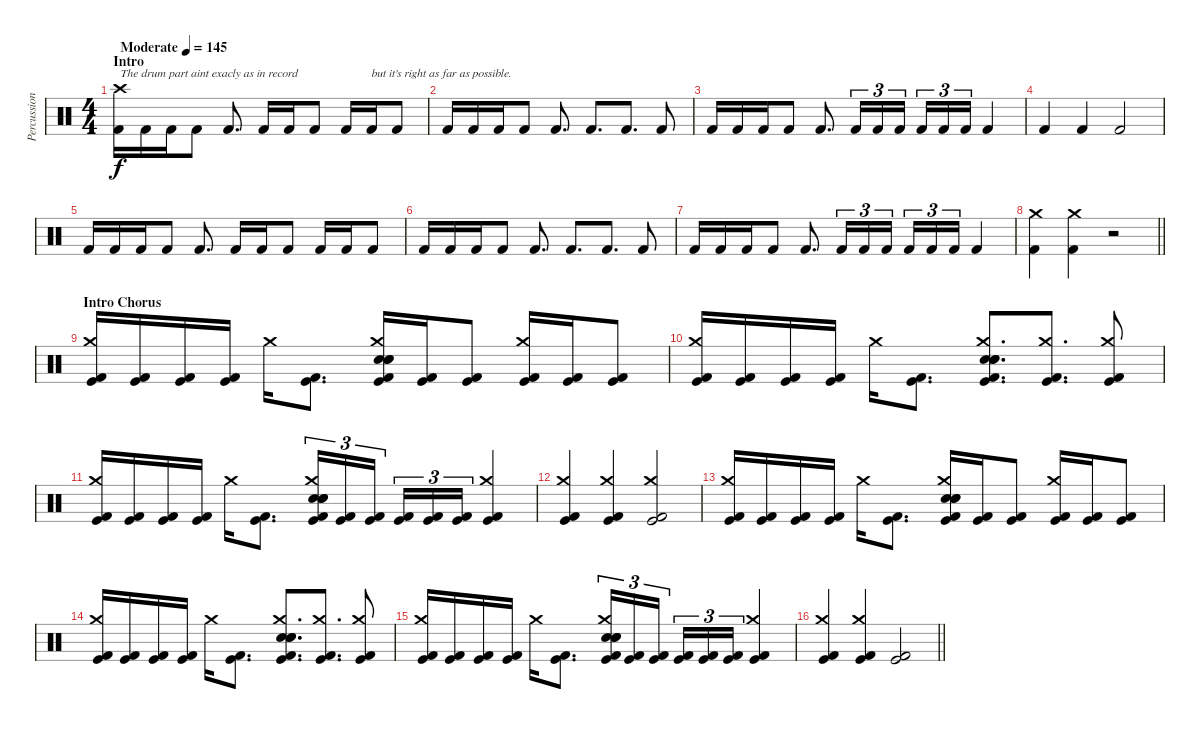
\track ("Percussion" "Percussion") {instrument percussion}
\staff {score}
\articulation defaults
\ts (4 4)
\section ("" "Intro")
\tempo (145 "Moderate")
\clef neutral
\ks c
("Crash high (hit)" "Kick (hit) 2").16{txt "The drum part aint exacly as in record " dy f} "Kick (hit) 2".16 "Kick (hit) 2".16 "Kick (hit) 2".8 "Kick (hit) 2".8{d} "Kick (hit) 2".16 "Kick (hit) 2".16 "Kick (hit) 2".8 "Kick (hit) 2".16 "Kick (hit) 2".16{txt "but it's right as far as possible."} "Kick (hit) 2".8 |
"Kick (hit) 2".16 "Kick (hit) 2".16 "Kick (hit) 2".16 "Kick (hit) 2".8 "Kick (hit) 2".8{d} "Kick (hit) 2".8{d} "Kick (hit) 2".8{d} "Kick (hit) 2".8 |
"Kick (hit) 2".16 "Kick (hit) 2".16 "Kick (hit) 2".16 "Kick (hit) 2".8 "Kick (hit) 2".8{d} "Kick (hit) 2".16{tu (3 2)} "Kick (hit) 2".16{tu (3 2)} "Kick (hit) 2".16{tu (3 2) beam splitsecondary} "Kick (hit) 2".16{tu (3 2)} "Kick (hit) 2".16{tu (3 2)} "Kick (hit) 2".16{tu (3 2)} "Kick (hit) 2".4 |
"Kick (hit) 2".4 "Kick (hit) 2".4 "Kick (hit) 2".2 |
"Kick (hit) 2".16 "Kick (hit) 2".16 "Kick (hit) 2".16 "Kick (hit) 2".8 "Kick (hit) 2".8{d} "Kick (hit) 2".16 "Kick (hit) 2".16 "Kick (hit) 2".8 "Kick (hit) 2".16 "Kick (hit) 2".16 "Kick (hit) 2".8 |
"Kick (hit) 2".16 "Kick (hit) 2".16 "Kick (hit) 2".16 "Kick (hit) 2".8 "Kick (hit) 2".8{d} "Kick (hit) 2".8{d} "Kick (hit) 2".8{d} "Kick (hit) 2".8 |
"Kick (hit) 2".16 "Kick (hit) 2".16 "Kick (hit) 2".16 "Kick (hit) 2".8 "Kick (hit) 2".8{d} "Kick (hit) 2".16{tu (3 2)} "Kick (hit) 2".16{tu (3 2)} "Kick (hit) 2".16{tu (3 2) beam splitsecondary} "Kick (hit) 2".16{tu (3 2)} "Kick (hit) 2".16{tu (3 2)} "Kick (hit) 2".16{tu (3 2)} "Kick (hit) 2".4 |
\barLineRight lightlight
("Crash medium (hit)" "Kick (hit) 2").4 ("Crash medium (hit)" "Kick (hit) 2").4 r.2 |
\section ("" "Intro Chorus")
("Crash medium (hit)" "Kick (hit)" "Kick (hit) 2").16 ("Kick (hit)" "Kick (hit) 2").16 ("Kick (hit)" "Kick (hit) 2").16 ("Kick (hit)" "Kick (hit) 2").16 "Crash medium (hit)".16 ("Kick (hit)" "Kick (hit) 2").8{d} ("Crash medium (hit)" "Electric Snare (hit)" "Snare (hit) 2" "Snare (hit) 2" "Kick (hit)" "Kick (hit) 2").16 ("Kick (hit)" "Kick (hit) 2").16 ("Kick (hit)" "Kick (hit) 2").8 ("Crash medium (hit)" "Kick (hit)" "Kick (hit) 2").16 ("Kick (hit)" "Kick (hit) 2").16 ("Kick (hit)" "Kick (hit) 2").8 |
("Crash medium (hit)" "Kick (hit)" "Kick (hit) 2").16 ("Kick (hit)" "Kick (hit) 2").16 ("Kick (hit)" "Kick (hit) 2").16 ("Kick (hit)" "Kick (hit) 2").16 "Crash medium (hit)".16 ("Kick (hit)" "Kick (hit) 2").8{d} ("Crash medium (hit)" "Electric Snare (hit)" "Snare (hit) 2" "Snare (hit) 2" "Kick (hit)" "Kick (hit) 2").8{d} ("Crash medium (hit)" "Kick (hit)" "Kick (hit) 2").8{d} ("Crash medium (hit)" "Kick (hit)" "Kick (hit) 2").8 |
("Crash medium (hit)" "Kick (hit)" "Kick (hit) 2").16 ("Kick (hit)" "Kick (hit) 2").16 ("Kick (hit)" "Kick (hit) 2").16 ("Kick (hit)" "Kick (hit) 2").16 "Crash medium (hit)".16 ("Kick (hit)" "Kick (hit) 2").8{d} ("Crash medium (hit)" "Electric Snare (hit)" "Snare (hit) 2" "Snare (hit) 2" "Kick (hit)" "Kick (hit) 2").16{tu (3 2)} ("Kick (hit)" "Kick (hit) 2").16{tu (3 2)} ("Kick (hit)" "Kick (hit) 2").16{tu (3 2) beam splitsecondary} ("Kick (hit)" "Kick (hit) 2").16{tu (3 2)} ("Kick (hit)" "Kick (hit) 2").16{tu (3 2)} ("Kick (hit)" "Kick (hit) 2").16{tu (3 2)} ("Crash medium (hit)" "Kick (hit)" "Kick (hit) 2").4 |
("Crash medium (hit)" "Kick (hit)" "Kick (hit) 2").4 ("Crash medium (hit)" "Kick (hit)" "Kick (hit) 2").4 ("Crash medium (hit)" "Kick (hit)" "Kick (hit) 2").2 |
("Crash medium (hit)" "Kick (hit)" "Kick (hit) 2").16 ("Kick (hit)" "Kick (hit) 2").16 ("Kick (hit)" "Kick (hit) 2").16 ("Kick (hit)" "Kick (hit) 2").16 "Crash medium (hit)".16 ("Kick (hit)" "Kick (hit) 2").8{d} ("Crash medium (hit)" "Electric Snare (hit)" "Snare (hit) 2" "Snare (hit) 2" "Kick (hit)" "Kick (hit) 2").16 ("Kick (hit)" "Kick (hit) 2").16 ("Kick (hit)" "Kick (hit) 2").8 ("Crash medium (hit)" "Kick (hit)" "Kick (hit) 2").16 ("Kick (hit)" "Kick (hit) 2").16 ("Kick (hit)" "Kick (hit) 2").8 |
("Crash medium (hit)" "Kick (hit)" "Kick (hit) 2").16 ("Kick (hit)" "Kick (hit) 2").16 ("Kick (hit)" "Kick (hit) 2").16 ("Kick (hit)" "Kick (hit) 2").16 "Crash medium (hit)".16 ("Kick (hit)" "Kick (hit) 2").8{d} ("Crash medium (hit)" "Electric Snare (hit)" "Snare (hit) 2" "Snare (hit) 2" "Kick (hit)" "Kick (hit) 2").8{d} ("Crash medium (hit)" "Kick (hit)" "Kick (hit) 2").8{d} ("Crash medium (hit)" "Kick (hit)" "Kick (hit) 2").8 |
("Crash medium (hit)" "Kick (hit)" "Kick (hit) 2").16 ("Kick (hit)" "Kick (hit) 2").16 ("Kick (hit)" "Kick (hit) 2").16 ("Kick (hit)" "Kick (hit) 2").16 "Crash medium (hit)".16 ("Kick (hit)" "Kick (hit) 2").8{d} ("Crash medium (hit)" "Electric Snare (hit)" "Snare (hit) 2" "Snare (hit) 2" "Kick (hit)" "Kick (hit) 2").16{tu (3 2)} ("Kick (hit)" "Kick (hit) 2").16{tu (3 2)} ("Kick (hit)" "Kick (hit) 2").16{tu (3 2) beam splitsecondary} ("Kick (hit)" "Kick (hit) 2").16{tu (3 2)} ("Kick (hit)" "Kick (hit) 2").16{tu (3 2)} ("Kick (hit)" "Kick (hit) 2").16{tu (3 2)} ("Crash medium (hit)" "Kick (hit)" "Kick (hit) 2").4 |
\barLineRight lightlight
("Crash medium (hit)" "Kick (hit)" "Kick (hit) 2").4 ("Crash medium (hit)" "Kick (hit)" "Kick (hit) 2").4 ("Kick (hit)" "Kick (hit) 2").2
